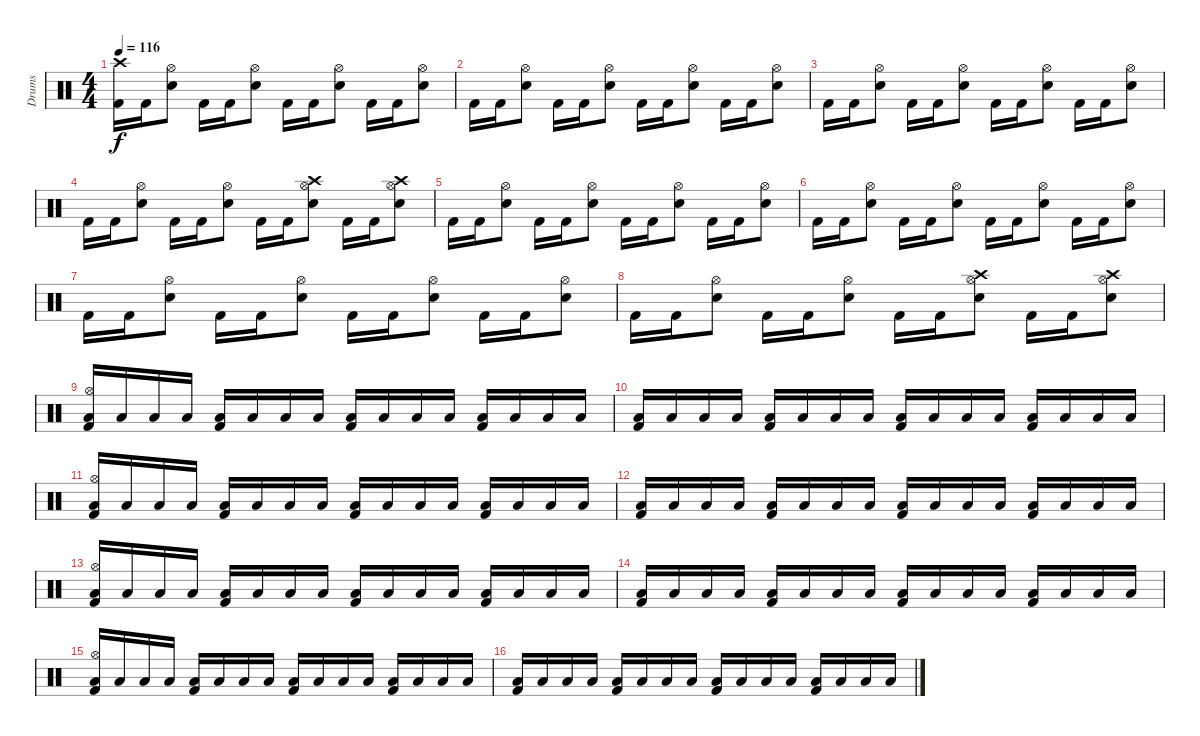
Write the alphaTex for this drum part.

\track ("Drums" "Drums") {instrument percussion}
\staff {score}
\articulation defaults
\ts (4 4)
\tempo 116
\clef neutral
\ks c
("Crash high (hit)" "Kick (hit) 2").16{dy f volume 13} "Kick (hit) 2".16 ("Hi-Hat (open)" "Snare (hit) 2").8 "Kick (hit) 2".16 "Kick (hit) 2".16 ("Hi-Hat (open)" "Snare (hit) 2").8 "Kick (hit) 2".16 "Kick (hit) 2".16 ("Hi-Hat (open)" "Snare (hit) 2").8 "Kick (hit) 2".16 "Kick (hit) 2".16 ("Hi-Hat (open)" "Snare (hit) 2").8 |
"Kick (hit) 2".16{volume 13} "Kick (hit) 2".16 ("Hi-Hat (open)" "Snare (hit) 2").8 "Kick (hit) 2".16 "Kick (hit) 2".16 ("Hi-Hat (open)" "Snare (hit) 2").8 "Kick (hit) 2".16 "Kick (hit) 2".16 ("Hi-Hat (open)" "Snare (hit) 2").8 "Kick (hit) 2".16 "Kick (hit) 2".16 ("Hi-Hat (open)" "Snare (hit) 2").8 |
"Kick (hit) 2".16{volume 13} "Kick (hit) 2".16 ("Hi-Hat (open)" "Snare (hit) 2").8 "Kick (hit) 2".16 "Kick (hit) 2".16 ("Hi-Hat (open)" "Snare (hit) 2").8 "Kick (hit) 2".16 "Kick (hit) 2".16 ("Hi-Hat (open)" "Snare (hit) 2").8 "Kick (hit) 2".16 "Kick (hit) 2".16 ("Hi-Hat (open)" "Snare (hit) 2").8 |
"Kick (hit) 2".16{volume 13} "Kick (hit) 2".16 ("Hi-Hat (open)" "Snare (hit) 2").8 "Kick (hit) 2".16 "Kick (hit) 2".16 ("Hi-Hat (open)" "Snare (hit) 2").8 "Kick (hit) 2".16 "Kick (hit) 2".16 ("Crash high (hit)" "Hi-Hat (open)" "Snare (hit) 2").8 "Kick (hit) 2".16 "Kick (hit) 2".16 ("Crash high (hit)" "Hi-Hat (open)" "Snare (hit) 2").8 |
"Kick (hit) 2".16{volume 13} "Kick (hit) 2".16 ("Hi-Hat (open)" "Snare (hit) 2").8 "Kick (hit) 2".16 "Kick (hit) 2".16 ("Hi-Hat (open)" "Snare (hit) 2").8 "Kick (hit) 2".16 "Kick (hit) 2".16 ("Hi-Hat (open)" "Snare (hit) 2").8 "Kick (hit) 2".16 "Kick (hit) 2".16 ("Hi-Hat (open)" "Snare (hit) 2").8 |
"Kick (hit) 2".16{volume 13} "Kick (hit) 2".16 ("Hi-Hat (open)" "Snare (hit) 2").8 "Kick (hit) 2".16 "Kick (hit) 2".16 ("Hi-Hat (open)" "Snare (hit) 2").8 "Kick (hit) 2".16 "Kick (hit) 2".16 ("Hi-Hat (open)" "Snare (hit) 2").8 "Kick (hit) 2".16 "Kick (hit) 2".16 ("Hi-Hat (open)" "Snare (hit) 2").8 |
"Kick (hit) 2".16{volume 13} "Kick (hit) 2".16 ("Hi-Hat (open)" "Snare (hit) 2").8 "Kick (hit) 2".16 "Kick (hit) 2".16 ("Hi-Hat (open)" "Snare (hit) 2").8 "Kick (hit) 2".16 "Kick (hit) 2".16 ("Hi-Hat (open)" "Snare (hit) 2").8 "Kick (hit) 2".16 "Kick (hit) 2".16 ("Hi-Hat (open)" "Snare (hit) 2").8 |
"Kick (hit) 2".16{volume 13} "Kick (hit) 2".16 ("Hi-Hat (open)" "Snare (hit) 2").8 "Kick (hit) 2".16 "Kick (hit) 2".16 ("Hi-Hat (open)" "Snare (hit) 2").8 "Kick (hit) 2".16 "Kick (hit) 2".16 ("Crash high (hit)" "Hi-Hat (open)" "Snare (hit) 2").8 "Kick (hit) 2".16 "Kick (hit) 2".16 ("Crash high (hit)" "Hi-Hat (open)" "Snare (hit) 2").8 |
("Hi-Hat (open)" "Kick (hit) 2" "Low Floor Tom (hit)").16 "Low Floor Tom (hit)".16 "Low Floor Tom (hit)".16 "Low Floor Tom (hit)".16 ("Kick (hit) 2" "Low Floor Tom (hit)").16 "Low Floor Tom (hit)".16 "Low Floor Tom (hit)".16 "Low Floor Tom (hit)".16 ("Kick (hit) 2" "Low Floor Tom (hit)").16 "Low Floor Tom (hit)".16 "Low Floor Tom (hit)".16 "Low Floor Tom (hit)".16 ("Kick (hit) 2" "Low Floor Tom (hit)").16 "Low Floor Tom (hit)".16 "Low Floor Tom (hit)".16 "Low Floor Tom (hit)".16 |
("Kick (hit) 2" "Low Floor Tom (hit)").16 "Low Floor Tom (hit)".16 "Low Floor Tom (hit)".16 "Low Floor Tom (hit)".16 ("Kick (hit) 2" "Low Floor Tom (hit)").16 "Low Floor Tom (hit)".16 "Low Floor Tom (hit)".16 "Low Floor Tom (hit)".16 ("Kick (hit) 2" "Low Floor Tom (hit)").16 "Low Floor Tom (hit)".16 "Low Floor Tom (hit)".16 "Low Floor Tom (hit)".16 ("Kick (hit) 2" "Low Floor Tom (hit)").16 "Low Floor Tom (hit)".16 "Low Floor Tom (hit)".16 "Low Floor Tom (hit)".16 |
("Hi-Hat (open)" "Kick (hit) 2" "Low Floor Tom (hit)").16 "Low Floor Tom (hit)".16 "Low Floor Tom (hit)".16 "Low Floor Tom (hit)".16 ("Kick (hit) 2" "Low Floor Tom (hit)").16 "Low Floor Tom (hit)".16 "Low Floor Tom (hit)".16 "Low Floor Tom (hit)".16 ("Kick (hit) 2" "Low Floor Tom (hit)").16 "Low Floor Tom (hit)".16 "Low Floor Tom (hit)".16 "Low Floor Tom (hit)".16 ("Kick (hit) 2" "Low Floor Tom (hit)").16 "Low Floor Tom (hit)".16 "Low Floor Tom (hit)".16 "Low Floor Tom (hit)".16 |
("Kick (hit) 2" "Low Floor Tom (hit)").16 "Low Floor Tom (hit)".16 "Low Floor Tom (hit)".16 "Low Floor Tom (hit)".16 ("Kick (hit) 2" "Low Floor Tom (hit)").16 "Low Floor Tom (hit)".16 "Low Floor Tom (hit)".16 "Low Floor Tom (hit)".16 ("Kick (hit) 2" "Low Floor Tom (hit)").16 "Low Floor Tom (hit)".16 "Low Floor Tom (hit)".16 "Low Floor Tom (hit)".16 ("Kick (hit) 2" "Low Floor Tom (hit)").16 "Low Floor Tom (hit)".16 "Low Floor Tom (hit)".16 "Low Floor Tom (hit)".16 |
("Hi-Hat (open)" "Kick (hit) 2" "Low Floor Tom (hit)").16 "Low Floor Tom (hit)".16 "Low Floor Tom (hit)".16 "Low Floor Tom (hit)".16 ("Kick (hit) 2" "Low Floor Tom (hit)").16 "Low Floor Tom (hit)".16 "Low Floor Tom (hit)".16 "Low Floor Tom (hit)".16 ("Kick (hit) 2" "Low Floor Tom (hit)").16 "Low Floor Tom (hit)".16 "Low Floor Tom (hit)".16 "Low Floor Tom (hit)".16 ("Kick (hit) 2" "Low Floor Tom (hit)").16 "Low Floor Tom (hit)".16 "Low Floor Tom (hit)".16 "Low Floor Tom (hit)".16 |
("Kick (hit) 2" "Low Floor Tom (hit)").16 "Low Floor Tom (hit)".16 "Low Floor Tom (hit)".16 "Low Floor Tom (hit)".16 ("Kick (hit) 2" "Low Floor Tom (hit)").16 "Low Floor Tom (hit)".16 "Low Floor Tom (hit)".16 "Low Floor Tom (hit)".16 ("Kick (hit) 2" "Low Floor Tom (hit)").16 "Low Floor Tom (hit)".16 "Low Floor Tom (hit)".16 "Low Floor Tom (hit)".16 ("Kick (hit) 2" "Low Floor Tom (hit)").16 "Low Floor Tom (hit)".16 "Low Floor Tom (hit)".16 "Low Floor Tom (hit)".16 |
("Hi-Hat (open)" "Kick (hit) 2" "Low Floor Tom (hit)").16 "Low Floor Tom (hit)".16 "Low Floor Tom (hit)".16 "Low Floor Tom (hit)".16 ("Kick (hit) 2" "Low Floor Tom (hit)").16 "Low Floor Tom (hit)".16 "Low Floor Tom (hit)".16 "Low Floor Tom (hit)".16 ("Kick (hit) 2" "Low Floor Tom (hit)").16 "Low Floor Tom (hit)".16 "Low Floor Tom (hit)".16 "Low Floor Tom (hit)".16 ("Kick (hit) 2" "Low Floor Tom (hit)").16 "Low Floor Tom (hit)".16 "Low Floor Tom (hit)".16 "Low Floor Tom (hit)".16 |
("Kick (hit) 2" "Low Floor Tom (hit)").16 "Low Floor Tom (hit)".16 "Low Floor Tom (hit)".16 "Low Floor Tom (hit)".16 ("Kick (hit) 2" "Low Floor Tom (hit)").16 "Low Floor Tom (hit)".16 "Low Floor Tom (hit)".16 "Low Floor Tom (hit)".16 ("Kick (hit) 2" "Low Floor Tom (hit)").16 "Low Floor Tom (hit)".16 "Low Floor Tom (hit)".16 "Low Floor Tom (hit)".16 ("Kick (hit) 2" "Low Floor Tom (hit)").16 "Low Floor Tom (hit)".16 "Low Floor Tom (hit)".16 "Low Floor Tom (hit)".16
